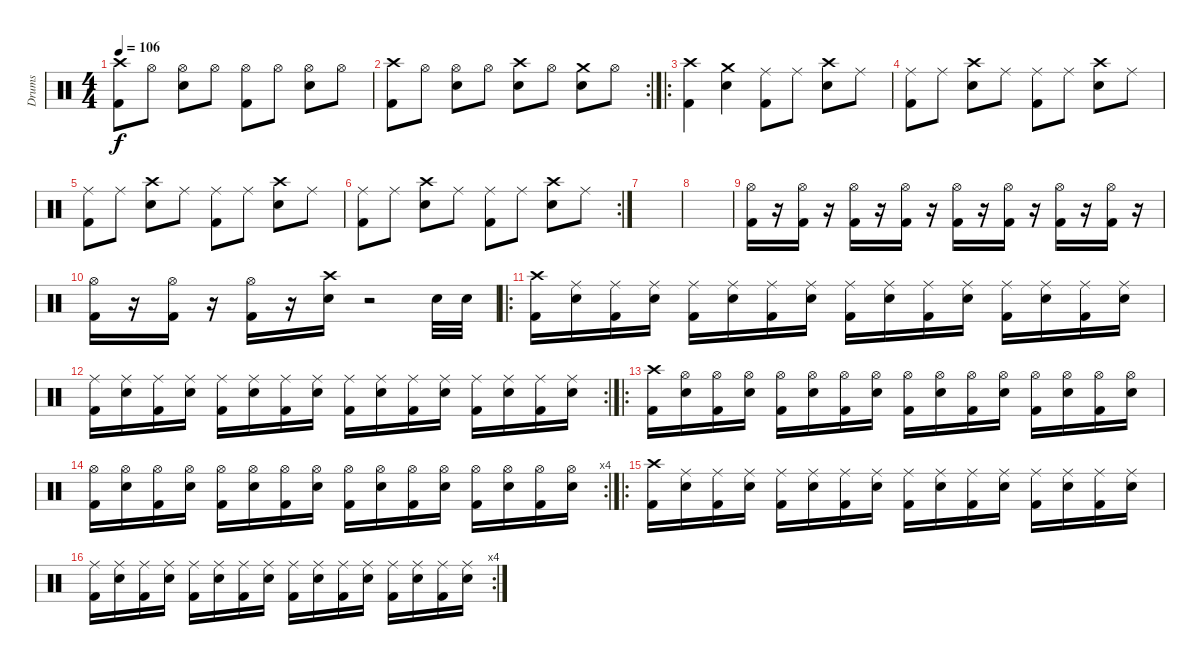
\track ("Drums" "Drums") {instrument percussion}
\staff {score}
\articulation defaults
\ts (4 4)
\tempo 106
\clef neutral
\ks c
("Crash high (hit)" "Kick (hit) 2").8{dy f} "Hi-Hat (open)".8 ("Hi-Hat (open)" "Electric Snare (hit)").8 "Hi-Hat (open)".8 ("Hi-Hat (open)" "Kick (hit) 2").8 "Hi-Hat (open)".8 ("Hi-Hat (open)" "Electric Snare (hit)").8 "Hi-Hat (open)".8 |
\rc 2
("Crash high (hit)" "Kick (hit) 2").8 "Hi-Hat (open)".8 ("Hi-Hat (open)" "Electric Snare (hit)").8 "Hi-Hat (open)".8 ("Crash high (hit)" "Electric Snare (hit)").8 "Hi-Hat (open)".8 ("Crash medium (hit)" "Electric Snare (hit)").8 "Hi-Hat (open)".8 |
\ro
("Crash high (hit)" "Kick (hit) 2").4 ("Crash medium (hit)" "Electric Snare (hit)").4 ("Ride (middle)" "Kick (hit) 2").8 "Ride (middle)".8 ("Crash high (hit)" "Electric Snare (hit)").8 "Ride (middle)".8 |
("Ride (middle)" "Kick (hit) 2").8 "Ride (middle)".8 ("Crash high (hit)" "Electric Snare (hit)").8 "Ride (middle)".8 ("Ride (middle)" "Kick (hit) 2").8 "Ride (middle)".8 ("Crash high (hit)" "Electric Snare (hit)").8 "Ride (middle)".8 |
("Ride (middle)" "Kick (hit) 2").8 "Ride (middle)".8 ("Crash high (hit)" "Electric Snare (hit)").8 "Ride (middle)".8 ("Ride (middle)" "Kick (hit) 2").8 "Ride (middle)".8 ("Crash high (hit)" "Electric Snare (hit)").8 "Ride (middle)".8 |
\rc 2
("Ride (middle)" "Kick (hit) 2").8 "Ride (middle)".8 ("Crash high (hit)" "Electric Snare (hit)").8 "Ride (middle)".8 ("Ride (middle)" "Kick (hit) 2").8 "Ride (middle)".8 ("Crash high (hit)" "Electric Snare (hit)").8 "Ride (middle)".8 |
|
|
("Hi-Hat (open)" "Kick (hit) 2").16 r.16 ("Hi-Hat (open)" "Kick (hit) 2").16 r.16 ("Hi-Hat (open)" "Kick (hit) 2").16 r.16 ("Hi-Hat (open)" "Kick (hit) 2").16 r.16 ("Hi-Hat (open)" "Kick (hit) 2").16 r.16 ("Hi-Hat (open)" "Kick (hit) 2").16 r.16 ("Hi-Hat (open)" "Kick (hit) 2").16 r.16 ("Hi-Hat (open)" "Kick (hit) 2").16 r.16 |
("Hi-Hat (open)" "Kick (hit) 2").16 r.16 ("Hi-Hat (open)" "Kick (hit) 2").16 r.16 ("Hi-Hat (open)" "Kick (hit) 2").16 r.16 ("Crash high (hit)" "Electric Snare (hit)").16 r.2 "Electric Snare (hit)".32 "Electric Snare (hit)".32 |
\ro
("Crash high (hit)" "Kick (hit) 2").16 ("Ride (middle)" "Electric Snare (hit)").16 ("Ride (middle)" "Kick (hit) 2").16 ("Ride (middle)" "Electric Snare (hit)").16 ("Ride (middle)" "Kick (hit) 2").16 ("Ride (middle)" "Electric Snare (hit)").16 ("Ride (middle)" "Kick (hit) 2").16 ("Ride (middle)" "Electric Snare (hit)").16 ("Ride (middle)" "Kick (hit) 2").16 ("Ride (middle)" "Electric Snare (hit)").16 ("Ride (middle)" "Kick (hit) 2").16 ("Ride (middle)" "Electric Snare (hit)").16 ("Ride (middle)" "Kick (hit) 2").16 ("Ride (middle)" "Electric Snare (hit)").16 ("Ride (middle)" "Kick (hit) 2").16 ("Ride (middle)" "Electric Snare (hit)").16 |
\rc 2
("Ride (middle)" "Kick (hit) 2").16 ("Ride (middle)" "Electric Snare (hit)").16 ("Ride (middle)" "Kick (hit) 2").16 ("Ride (middle)" "Electric Snare (hit)").16 ("Ride (middle)" "Kick (hit) 2").16 ("Ride (middle)" "Electric Snare (hit)").16 ("Ride (middle)" "Kick (hit) 2").16 ("Ride (middle)" "Electric Snare (hit)").16 ("Ride (middle)" "Kick (hit) 2").16 ("Ride (middle)" "Electric Snare (hit)").16 ("Ride (middle)" "Kick (hit) 2").16 ("Ride (middle)" "Electric Snare (hit)").16 ("Ride (middle)" "Kick (hit) 2").16 ("Ride (middle)" "Electric Snare (hit)").16 ("Ride (middle)" "Kick (hit) 2").16 ("Ride (middle)" "Electric Snare (hit)").16 |
\ro
("Crash high (hit)" "Kick (hit) 2").16 ("Hi-Hat (open)" "Electric Snare (hit)").16 ("Hi-Hat (open)" "Kick (hit) 2").16 ("Hi-Hat (open)" "Electric Snare (hit)").16 ("Hi-Hat (open)" "Kick (hit) 2").16 ("Hi-Hat (open)" "Electric Snare (hit)").16 ("Hi-Hat (open)" "Kick (hit) 2").16 ("Hi-Hat (open)" "Electric Snare (hit)").16 ("Hi-Hat (open)" "Kick (hit) 2").16 ("Hi-Hat (open)" "Electric Snare (hit)").16 ("Hi-Hat (open)" "Kick (hit) 2").16 ("Hi-Hat (open)" "Electric Snare (hit)").16 ("Hi-Hat (open)" "Kick (hit) 2").16 ("Hi-Hat (open)" "Electric Snare (hit)").16 ("Hi-Hat (open)" "Kick (hit) 2").16 ("Hi-Hat (open)" "Electric Snare (hit)").16 |
\rc 4
("Hi-Hat (open)" "Kick (hit) 2").16 ("Hi-Hat (open)" "Electric Snare (hit)").16 ("Hi-Hat (open)" "Kick (hit) 2").16 ("Hi-Hat (open)" "Electric Snare (hit)").16 ("Hi-Hat (open)" "Kick (hit) 2").16 ("Hi-Hat (open)" "Electric Snare (hit)").16 ("Hi-Hat (open)" "Kick (hit) 2").16 ("Hi-Hat (open)" "Electric Snare (hit)").16 ("Hi-Hat (open)" "Kick (hit) 2").16 ("Hi-Hat (open)" "Electric Snare (hit)").16 ("Hi-Hat (open)" "Kick (hit) 2").16 ("Hi-Hat (open)" "Electric Snare (hit)").16 ("Hi-Hat (open)" "Kick (hit) 2").16 ("Hi-Hat (open)" "Electric Snare (hit)").16 ("Hi-Hat (open)" "Kick (hit) 2").16 ("Hi-Hat (open)" "Electric Snare (hit)").16 |
\ro
("Crash high (hit)" "Kick (hit) 2").16 ("Ride (middle)" "Electric Snare (hit)").16 ("Ride (middle)" "Kick (hit) 2").16 ("Ride (middle)" "Electric Snare (hit)").16 ("Ride (middle)" "Kick (hit) 2").16 ("Ride (middle)" "Electric Snare (hit)").16 ("Ride (middle)" "Kick (hit) 2").16 ("Ride (middle)" "Electric Snare (hit)").16 ("Ride (middle)" "Kick (hit) 2").16 ("Ride (middle)" "Electric Snare (hit)").16 ("Ride (middle)" "Kick (hit) 2").16 ("Ride (middle)" "Electric Snare (hit)").16 ("Ride (middle)" "Kick (hit) 2").16 ("Ride (middle)" "Electric Snare (hit)").16 ("Ride (middle)" "Kick (hit) 2").16 ("Ride (middle)" "Electric Snare (hit)").16 |
\rc 4
("Ride (middle)" "Kick (hit) 2").16 ("Ride (middle)" "Electric Snare (hit)").16 ("Ride (middle)" "Kick (hit) 2").16 ("Ride (middle)" "Electric Snare (hit)").16 ("Ride (middle)" "Kick (hit) 2").16 ("Ride (middle)" "Electric Snare (hit)").16 ("Ride (middle)" "Kick (hit) 2").16 ("Ride (middle)" "Electric Snare (hit)").16 ("Ride (middle)" "Kick (hit) 2").16 ("Ride (middle)" "Electric Snare (hit)").16 ("Ride (middle)" "Kick (hit) 2").16 ("Ride (middle)" "Electric Snare (hit)").16 ("Ride (middle)" "Kick (hit) 2").16 ("Ride (middle)" "Electric Snare (hit)").16 ("Ride (middle)" "Kick (hit) 2").16 ("Ride (middle)" "Electric Snare (hit)").16
